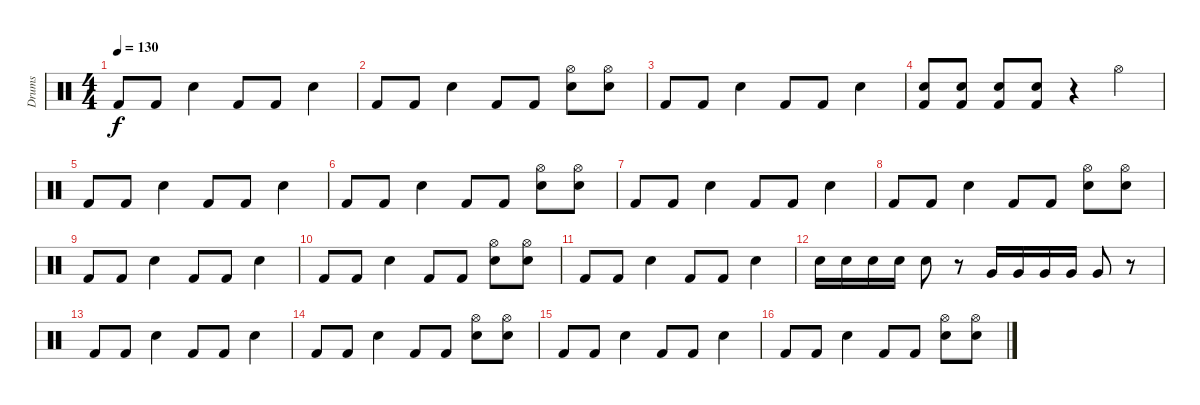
\track ("Drums" "Drums") {instrument percussion}
\staff {score}
\articulation defaults
\ts (4 4)
\tempo 130
\clef neutral
\ks c "Kick (hit) 2".8{dy f} "Kick (hit) 2".8 "Snare (hit) 2".4 "Kick (hit) 2".8 "Kick (hit) 2".8 "Snare (hit) 2".4
|
"Kick (hit) 2".8 "Kick (hit) 2".8 "Snare (hit) 2".4 "Kick (hit) 2".8 "Kick (hit) 2".8 ("Snare (hit) 2" "Hi-Hat (open)").8 ("Snare (hit) 2" "Hi-Hat (open)").8 |
"Kick (hit) 2".8 "Kick (hit) 2".8 "Snare (hit) 2".4 "Kick (hit) 2".8 "Kick (hit) 2".8 "Snare (hit) 2".4 |
("Kick (hit) 2" "Snare (hit) 2").8 ("Kick (hit) 2" "Snare (hit) 2").8 ("Kick (hit) 2" "Snare (hit) 2").8 ("Kick (hit) 2" "Snare (hit) 2").8 r.4 "Hi-Hat (open)".4 |
"Kick (hit) 2".8 "Kick (hit) 2".8 "Snare (hit) 2".4 "Kick (hit) 2".8 "Kick (hit) 2".8 "Snare (hit) 2".4 |
"Kick (hit) 2".8 "Kick (hit) 2".8 "Snare (hit) 2".4 "Kick (hit) 2".8 "Kick (hit) 2".8 ("Snare (hit) 2" "Hi-Hat (open)").8 ("Snare (hit) 2" "Hi-Hat (open)").8 |
"Kick (hit) 2".8 "Kick (hit) 2".8 "Snare (hit) 2".4 "Kick (hit) 2".8 "Kick (hit) 2".8 "Snare (hit) 2".4 |
"Kick (hit) 2".8 "Kick (hit) 2".8 "Snare (hit) 2".4 "Kick (hit) 2".8 "Kick (hit) 2".8 ("Snare (hit) 2" "Hi-Hat (open)").8 ("Snare (hit) 2" "Hi-Hat (open)").8 |
"Kick (hit) 2".8 "Kick (hit) 2".8 "Snare (hit) 2".4 "Kick (hit) 2".8 "Kick (hit) 2".8 "Snare (hit) 2".4 |
"Kick (hit) 2".8 "Kick (hit) 2".8 "Snare (hit) 2".4 "Kick (hit) 2".8 "Kick (hit) 2".8 ("Snare (hit) 2" "Hi-Hat (open)").8 ("Snare (hit) 2" "Hi-Hat (open)").8 |
"Kick (hit) 2".8 "Kick (hit) 2".8 "Snare (hit) 2".4 "Kick (hit) 2".8 "Kick (hit) 2".8 "Snare (hit) 2".4 |
"Snare (hit) 2".16 "Snare (hit) 2".16 "Snare (hit) 2".16 "Snare (hit) 2".16 "Snare (hit) 2".8 r.8 "Very Low Tom (hit)".16 "Very Low Tom (hit)".16 "Very Low Tom (hit)".16 "Very Low Tom (hit)".16 "Very Low Tom (hit)".8 r.8 |
"Kick (hit) 2".8 "Kick (hit) 2".8 "Snare (hit) 2".4 "Kick (hit) 2".8 "Kick (hit) 2".8 "Snare (hit) 2".4 |
"Kick (hit) 2".8 "Kick (hit) 2".8 "Snare (hit) 2".4 "Kick (hit) 2".8 "Kick (hit) 2".8 ("Snare (hit) 2" "Hi-Hat (open)").8 ("Snare (hit) 2" "Hi-Hat (open)").8 |
"Kick (hit) 2".8 "Kick (hit) 2".8 "Snare (hit) 2".4 "Kick (hit) 2".8 "Kick (hit) 2".8 "Snare (hit) 2".4 |
"Kick (hit) 2".8 "Kick (hit) 2".8 "Snare (hit) 2".4 "Kick (hit) 2".8 "Kick (hit) 2".8 ("Snare (hit) 2" "Hi-Hat (open)").8 ("Snare (hit) 2" "Hi-Hat (open)").8
